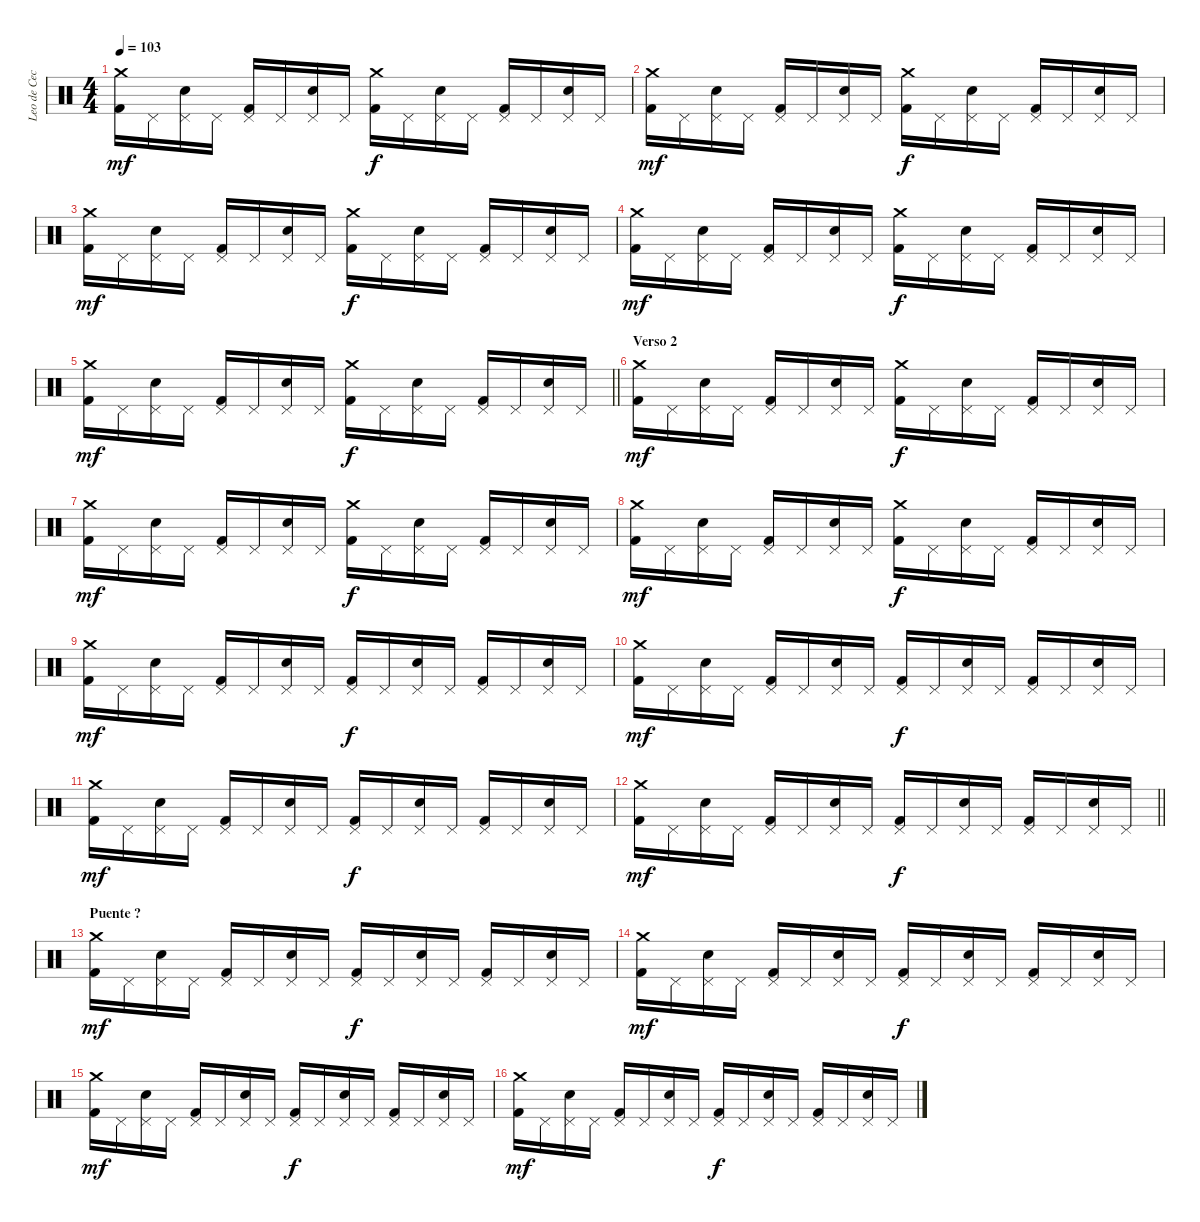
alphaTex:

\track ("Leo de Cecco" "Leo de Cec") {instrument percussion}
\staff {score}
\articulation defaults
\ts (4 4)
\tempo 103
\clef neutral
\ks c
("Crash medium (hit)" "Kick (hit) 2").16{dy mf} "Pedal Hi-Hat (hit)".16 ("Pedal Hi-Hat (hit)" "Snare (hit) 2").16 "Pedal Hi-Hat (hit)".16 ("Pedal Hi-Hat (hit)" "Kick (hit) 2").16 "Pedal Hi-Hat (hit)".16 ("Pedal Hi-Hat (hit)" "Snare (hit) 2").16 "Pedal Hi-Hat (hit)".16 ("Crash medium (hit)" "Kick (hit) 2").16{dy f} "Pedal Hi-Hat (hit)".16 ("Pedal Hi-Hat (hit)" "Snare (hit) 2").16 "Pedal Hi-Hat (hit)".16 ("Pedal Hi-Hat (hit)" "Kick (hit) 2").16 "Pedal Hi-Hat (hit)".16 ("Pedal Hi-Hat (hit)" "Snare (hit) 2").16 "Pedal Hi-Hat (hit)".16 |
("Crash medium (hit)" "Kick (hit) 2").16{dy mf} "Pedal Hi-Hat (hit)".16 ("Pedal Hi-Hat (hit)" "Snare (hit) 2").16 "Pedal Hi-Hat (hit)".16 ("Pedal Hi-Hat (hit)" "Kick (hit) 2").16 "Pedal Hi-Hat (hit)".16 ("Pedal Hi-Hat (hit)" "Snare (hit) 2").16 "Pedal Hi-Hat (hit)".16 ("Crash medium (hit)" "Kick (hit) 2").16{dy f} "Pedal Hi-Hat (hit)".16 ("Pedal Hi-Hat (hit)" "Snare (hit) 2").16 "Pedal Hi-Hat (hit)".16 ("Pedal Hi-Hat (hit)" "Kick (hit) 2").16 "Pedal Hi-Hat (hit)".16 ("Pedal Hi-Hat (hit)" "Snare (hit) 2").16 "Pedal Hi-Hat (hit)".16 |
("Crash medium (hit)" "Kick (hit) 2").16{dy mf} "Pedal Hi-Hat (hit)".16 ("Pedal Hi-Hat (hit)" "Snare (hit) 2").16 "Pedal Hi-Hat (hit)".16 ("Pedal Hi-Hat (hit)" "Kick (hit) 2").16 "Pedal Hi-Hat (hit)".16 ("Pedal Hi-Hat (hit)" "Snare (hit) 2").16 "Pedal Hi-Hat (hit)".16 ("Crash medium (hit)" "Kick (hit) 2").16{dy f} "Pedal Hi-Hat (hit)".16 ("Pedal Hi-Hat (hit)" "Snare (hit) 2").16 "Pedal Hi-Hat (hit)".16 ("Pedal Hi-Hat (hit)" "Kick (hit) 2").16 "Pedal Hi-Hat (hit)".16 ("Pedal Hi-Hat (hit)" "Snare (hit) 2").16 "Pedal Hi-Hat (hit)".16 |
("Crash medium (hit)" "Kick (hit) 2").16{dy mf} "Pedal Hi-Hat (hit)".16 ("Pedal Hi-Hat (hit)" "Snare (hit) 2").16 "Pedal Hi-Hat (hit)".16 ("Pedal Hi-Hat (hit)" "Kick (hit) 2").16 "Pedal Hi-Hat (hit)".16 ("Pedal Hi-Hat (hit)" "Snare (hit) 2").16 "Pedal Hi-Hat (hit)".16 ("Crash medium (hit)" "Kick (hit) 2").16{dy f} "Pedal Hi-Hat (hit)".16 ("Pedal Hi-Hat (hit)" "Snare (hit) 2").16 "Pedal Hi-Hat (hit)".16 ("Pedal Hi-Hat (hit)" "Kick (hit) 2").16 "Pedal Hi-Hat (hit)".16 ("Pedal Hi-Hat (hit)" "Snare (hit) 2").16 "Pedal Hi-Hat (hit)".16 |
\barLineRight lightlight
("Crash medium (hit)" "Kick (hit) 2").16{dy mf} "Pedal Hi-Hat (hit)".16 ("Pedal Hi-Hat (hit)" "Snare (hit) 2").16 "Pedal Hi-Hat (hit)".16 ("Pedal Hi-Hat (hit)" "Kick (hit) 2").16 "Pedal Hi-Hat (hit)".16 ("Pedal Hi-Hat (hit)" "Snare (hit) 2").16 "Pedal Hi-Hat (hit)".16 ("Crash medium (hit)" "Kick (hit) 2").16{dy f} "Pedal Hi-Hat (hit)".16 ("Pedal Hi-Hat (hit)" "Snare (hit) 2").16 "Pedal Hi-Hat (hit)".16 ("Pedal Hi-Hat (hit)" "Kick (hit) 2").16 "Pedal Hi-Hat (hit)".16 ("Pedal Hi-Hat (hit)" "Snare (hit) 2").16 "Pedal Hi-Hat (hit)".16 |
\section ("" "Verso 2")
("Crash medium (hit)" "Kick (hit) 2").16{dy mf} "Pedal Hi-Hat (hit)".16 ("Pedal Hi-Hat (hit)" "Snare (hit) 2").16 "Pedal Hi-Hat (hit)".16 ("Pedal Hi-Hat (hit)" "Kick (hit) 2").16 "Pedal Hi-Hat (hit)".16 ("Pedal Hi-Hat (hit)" "Snare (hit) 2").16 "Pedal Hi-Hat (hit)".16 ("Crash medium (hit)" "Kick (hit) 2").16{dy f} "Pedal Hi-Hat (hit)".16 ("Pedal Hi-Hat (hit)" "Snare (hit) 2").16 "Pedal Hi-Hat (hit)".16 ("Pedal Hi-Hat (hit)" "Kick (hit) 2").16 "Pedal Hi-Hat (hit)".16 ("Pedal Hi-Hat (hit)" "Snare (hit) 2").16 "Pedal Hi-Hat (hit)".16 |
("Crash medium (hit)" "Kick (hit) 2").16{dy mf} "Pedal Hi-Hat (hit)".16 ("Pedal Hi-Hat (hit)" "Snare (hit) 2").16 "Pedal Hi-Hat (hit)".16 ("Pedal Hi-Hat (hit)" "Kick (hit) 2").16 "Pedal Hi-Hat (hit)".16 ("Pedal Hi-Hat (hit)" "Snare (hit) 2").16 "Pedal Hi-Hat (hit)".16 ("Crash medium (hit)" "Kick (hit) 2").16{dy f} "Pedal Hi-Hat (hit)".16 ("Pedal Hi-Hat (hit)" "Snare (hit) 2").16 "Pedal Hi-Hat (hit)".16 ("Pedal Hi-Hat (hit)" "Kick (hit) 2").16 "Pedal Hi-Hat (hit)".16 ("Pedal Hi-Hat (hit)" "Snare (hit) 2").16 "Pedal Hi-Hat (hit)".16 |
("Crash medium (hit)" "Kick (hit) 2").16{dy mf} "Pedal Hi-Hat (hit)".16 ("Pedal Hi-Hat (hit)" "Snare (hit) 2").16 "Pedal Hi-Hat (hit)".16 ("Pedal Hi-Hat (hit)" "Kick (hit) 2").16 "Pedal Hi-Hat (hit)".16 ("Pedal Hi-Hat (hit)" "Snare (hit) 2").16 "Pedal Hi-Hat (hit)".16 ("Crash medium (hit)" "Kick (hit) 2").16{dy f} "Pedal Hi-Hat (hit)".16 ("Pedal Hi-Hat (hit)" "Snare (hit) 2").16 "Pedal Hi-Hat (hit)".16 ("Pedal Hi-Hat (hit)" "Kick (hit) 2").16 "Pedal Hi-Hat (hit)".16 ("Pedal Hi-Hat (hit)" "Snare (hit) 2").16 "Pedal Hi-Hat (hit)".16 |
("Crash medium (hit)" "Kick (hit) 2").16{dy mf} "Pedal Hi-Hat (hit)".16 ("Pedal Hi-Hat (hit)" "Snare (hit) 2").16 "Pedal Hi-Hat (hit)".16 ("Pedal Hi-Hat (hit)" "Kick (hit) 2").16 "Pedal Hi-Hat (hit)".16 ("Pedal Hi-Hat (hit)" "Snare (hit) 2").16 "Pedal Hi-Hat (hit)".16 ("Pedal Hi-Hat (hit)" "Kick (hit) 2").16{dy f} "Pedal Hi-Hat (hit)".16 ("Pedal Hi-Hat (hit)" "Snare (hit) 2").16 "Pedal Hi-Hat (hit)".16 ("Pedal Hi-Hat (hit)" "Kick (hit) 2").16 "Pedal Hi-Hat (hit)".16 ("Pedal Hi-Hat (hit)" "Snare (hit) 2").16 "Pedal Hi-Hat (hit)".16 |
("Crash medium (hit)" "Kick (hit) 2").16{dy mf} "Pedal Hi-Hat (hit)".16 ("Pedal Hi-Hat (hit)" "Snare (hit) 2").16 "Pedal Hi-Hat (hit)".16 ("Pedal Hi-Hat (hit)" "Kick (hit) 2").16 "Pedal Hi-Hat (hit)".16 ("Pedal Hi-Hat (hit)" "Snare (hit) 2").16 "Pedal Hi-Hat (hit)".16 ("Pedal Hi-Hat (hit)" "Kick (hit) 2").16{dy f} "Pedal Hi-Hat (hit)".16 ("Pedal Hi-Hat (hit)" "Snare (hit) 2").16 "Pedal Hi-Hat (hit)".16 ("Pedal Hi-Hat (hit)" "Kick (hit) 2").16 "Pedal Hi-Hat (hit)".16 ("Pedal Hi-Hat (hit)" "Snare (hit) 2").16 "Pedal Hi-Hat (hit)".16 |
("Crash medium (hit)" "Kick (hit) 2").16{dy mf} "Pedal Hi-Hat (hit)".16 ("Pedal Hi-Hat (hit)" "Snare (hit) 2").16 "Pedal Hi-Hat (hit)".16 ("Pedal Hi-Hat (hit)" "Kick (hit) 2").16 "Pedal Hi-Hat (hit)".16 ("Pedal Hi-Hat (hit)" "Snare (hit) 2").16 "Pedal Hi-Hat (hit)".16 ("Pedal Hi-Hat (hit)" "Kick (hit) 2").16{dy f} "Pedal Hi-Hat (hit)".16 ("Pedal Hi-Hat (hit)" "Snare (hit) 2").16 "Pedal Hi-Hat (hit)".16 ("Pedal Hi-Hat (hit)" "Kick (hit) 2").16 "Pedal Hi-Hat (hit)".16 ("Pedal Hi-Hat (hit)" "Snare (hit) 2").16 "Pedal Hi-Hat (hit)".16 |
\barLineRight lightlight
("Crash medium (hit)" "Kick (hit) 2").16{dy mf} "Pedal Hi-Hat (hit)".16 ("Pedal Hi-Hat (hit)" "Snare (hit) 2").16 "Pedal Hi-Hat (hit)".16 ("Pedal Hi-Hat (hit)" "Kick (hit) 2").16 "Pedal Hi-Hat (hit)".16 ("Pedal Hi-Hat (hit)" "Snare (hit) 2").16 "Pedal Hi-Hat (hit)".16 ("Pedal Hi-Hat (hit)" "Kick (hit) 2").16{dy f} "Pedal Hi-Hat (hit)".16 ("Pedal Hi-Hat (hit)" "Snare (hit) 2").16 "Pedal Hi-Hat (hit)".16 ("Pedal Hi-Hat (hit)" "Kick (hit) 2").16 "Pedal Hi-Hat (hit)".16 ("Pedal Hi-Hat (hit)" "Snare (hit) 2").16 "Pedal Hi-Hat (hit)".16 |
\section ("" "Puente ?")
("Crash medium (hit)" "Kick (hit) 2").16{dy mf} "Pedal Hi-Hat (hit)".16 ("Pedal Hi-Hat (hit)" "Snare (hit) 2").16 "Pedal Hi-Hat (hit)".16 ("Pedal Hi-Hat (hit)" "Kick (hit) 2").16 "Pedal Hi-Hat (hit)".16 ("Pedal Hi-Hat (hit)" "Snare (hit) 2").16 "Pedal Hi-Hat (hit)".16 ("Pedal Hi-Hat (hit)" "Kick (hit) 2").16{dy f} "Pedal Hi-Hat (hit)".16 ("Pedal Hi-Hat (hit)" "Snare (hit) 2").16 "Pedal Hi-Hat (hit)".16 ("Pedal Hi-Hat (hit)" "Kick (hit) 2").16 "Pedal Hi-Hat (hit)".16 ("Pedal Hi-Hat (hit)" "Snare (hit) 2").16 "Pedal Hi-Hat (hit)".16 |
("Crash medium (hit)" "Kick (hit) 2").16{dy mf} "Pedal Hi-Hat (hit)".16 ("Pedal Hi-Hat (hit)" "Snare (hit) 2").16 "Pedal Hi-Hat (hit)".16 ("Pedal Hi-Hat (hit)" "Kick (hit) 2").16 "Pedal Hi-Hat (hit)".16 ("Pedal Hi-Hat (hit)" "Snare (hit) 2").16 "Pedal Hi-Hat (hit)".16 ("Pedal Hi-Hat (hit)" "Kick (hit) 2").16{dy f} "Pedal Hi-Hat (hit)".16 ("Pedal Hi-Hat (hit)" "Snare (hit) 2").16 "Pedal Hi-Hat (hit)".16 ("Pedal Hi-Hat (hit)" "Kick (hit) 2").16 "Pedal Hi-Hat (hit)".16 ("Pedal Hi-Hat (hit)" "Snare (hit) 2").16 "Pedal Hi-Hat (hit)".16 |
("Crash medium (hit)" "Kick (hit) 2").16{dy mf} "Pedal Hi-Hat (hit)".16 ("Pedal Hi-Hat (hit)" "Snare (hit) 2").16 "Pedal Hi-Hat (hit)".16 ("Pedal Hi-Hat (hit)" "Kick (hit) 2").16 "Pedal Hi-Hat (hit)".16 ("Pedal Hi-Hat (hit)" "Snare (hit) 2").16 "Pedal Hi-Hat (hit)".16 ("Pedal Hi-Hat (hit)" "Kick (hit) 2").16{dy f} "Pedal Hi-Hat (hit)".16 ("Pedal Hi-Hat (hit)" "Snare (hit) 2").16 "Pedal Hi-Hat (hit)".16 ("Pedal Hi-Hat (hit)" "Kick (hit) 2").16 "Pedal Hi-Hat (hit)".16 ("Pedal Hi-Hat (hit)" "Snare (hit) 2").16 "Pedal Hi-Hat (hit)".16 |
("Crash medium (hit)" "Kick (hit) 2").16{dy mf} "Pedal Hi-Hat (hit)".16 ("Pedal Hi-Hat (hit)" "Snare (hit) 2").16 "Pedal Hi-Hat (hit)".16 ("Pedal Hi-Hat (hit)" "Kick (hit) 2").16 "Pedal Hi-Hat (hit)".16 ("Pedal Hi-Hat (hit)" "Snare (hit) 2").16 "Pedal Hi-Hat (hit)".16 ("Pedal Hi-Hat (hit)" "Kick (hit) 2").16{dy f} "Pedal Hi-Hat (hit)".16 ("Pedal Hi-Hat (hit)" "Snare (hit) 2").16 "Pedal Hi-Hat (hit)".16 ("Pedal Hi-Hat (hit)" "Kick (hit) 2").16 "Pedal Hi-Hat (hit)".16 ("Pedal Hi-Hat (hit)" "Snare (hit) 2").16 "Pedal Hi-Hat (hit)".16
